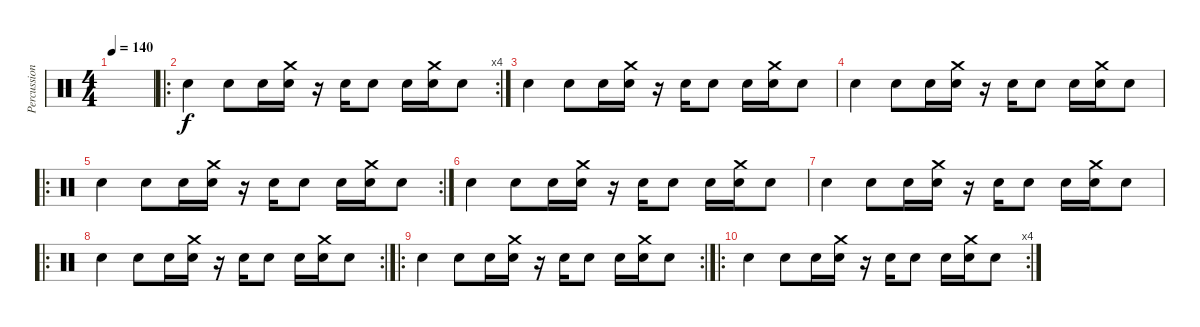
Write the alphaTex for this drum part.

\track ("Percussions" "Percussion") {instrument percussion}
\staff {score}
\articulation defaults
\ts (4 4)
\tempo 140
\clef neutral
\ks c
|
\ro
\rc 4 "Electric Snare (hit)".4 "Electric Snare (hit)".8 "Electric Snare (hit)".16
("Crash medium (hit)" "Electric Snare (hit)").16 r.16 "Electric Snare (hit)".16 "Electric Snare (hit)".8 "Electric Snare (hit)".16 ("Crash medium (hit)" "Electric Snare (hit)").16 "Electric Snare (hit)".8 |
"Electric Snare (hit)".4 "Electric Snare (hit)".8 "Electric Snare (hit)".16 ("Crash medium (hit)" "Electric Snare (hit)").16 r.16 "Electric Snare (hit)".16 "Electric Snare (hit)".8 "Electric Snare (hit)".16 ("Crash medium (hit)" "Electric Snare (hit)").16 "Electric Snare (hit)".8 |
"Electric Snare (hit)".4 "Electric Snare (hit)".8 "Electric Snare (hit)".16 ("Crash medium (hit)" "Electric Snare (hit)").16 r.16 "Electric Snare (hit)".16 "Electric Snare (hit)".8 "Electric Snare (hit)".16 ("Crash medium (hit)" "Electric Snare (hit)").16 "Electric Snare (hit)".8 |
\ro
\rc 2 "Electric Snare (hit)".4 "Electric Snare (hit)".8 "Electric Snare (hit)".16
("Crash medium (hit)" "Electric Snare (hit)").16 r.16 "Electric Snare (hit)".16 "Electric Snare (hit)".8 "Electric Snare (hit)".16 ("Crash medium (hit)" "Electric Snare (hit)").16 "Electric Snare (hit)".8 |
"Electric Snare (hit)".4 "Electric Snare (hit)".8 "Electric Snare (hit)".16 ("Crash medium (hit)" "Electric Snare (hit)").16 r.16 "Electric Snare (hit)".16 "Electric Snare (hit)".8 "Electric Snare (hit)".16 ("Crash medium (hit)" "Electric Snare (hit)").16 "Electric Snare (hit)".8 |
"Electric Snare (hit)".4 "Electric Snare (hit)".8 "Electric Snare (hit)".16 ("Crash medium (hit)" "Electric Snare (hit)").16 r.16 "Electric Snare (hit)".16 "Electric Snare (hit)".8 "Electric Snare (hit)".16 ("Crash medium (hit)" "Electric Snare (hit)").16 "Electric Snare (hit)".8 |
\ro
\rc 2 "Electric Snare (hit)".4 "Electric Snare (hit)".8 "Electric Snare (hit)".16
("Crash medium (hit)" "Electric Snare (hit)").16 r.16 "Electric Snare (hit)".16 "Electric Snare (hit)".8 "Electric Snare (hit)".16 ("Crash medium (hit)" "Electric Snare (hit)").16 "Electric Snare (hit)".8 |
\ro
\rc 2 "Electric Snare (hit)".4 "Electric Snare (hit)".8 "Electric Snare (hit)".16
("Crash medium (hit)" "Electric Snare (hit)").16 r.16 "Electric Snare (hit)".16 "Electric Snare (hit)".8 "Electric Snare (hit)".16 ("Crash medium (hit)" "Electric Snare (hit)").16 "Electric Snare (hit)".8 |
\ro
\rc 4 "Electric Snare (hit)".4 "Electric Snare (hit)".8 "Electric Snare (hit)".16
("Crash medium (hit)" "Electric Snare (hit)").16 r.16 "Electric Snare (hit)".16 "Electric Snare (hit)".8 "Electric Snare (hit)".16 ("Crash medium (hit)" "Electric Snare (hit)").16 "Electric Snare (hit)".8
